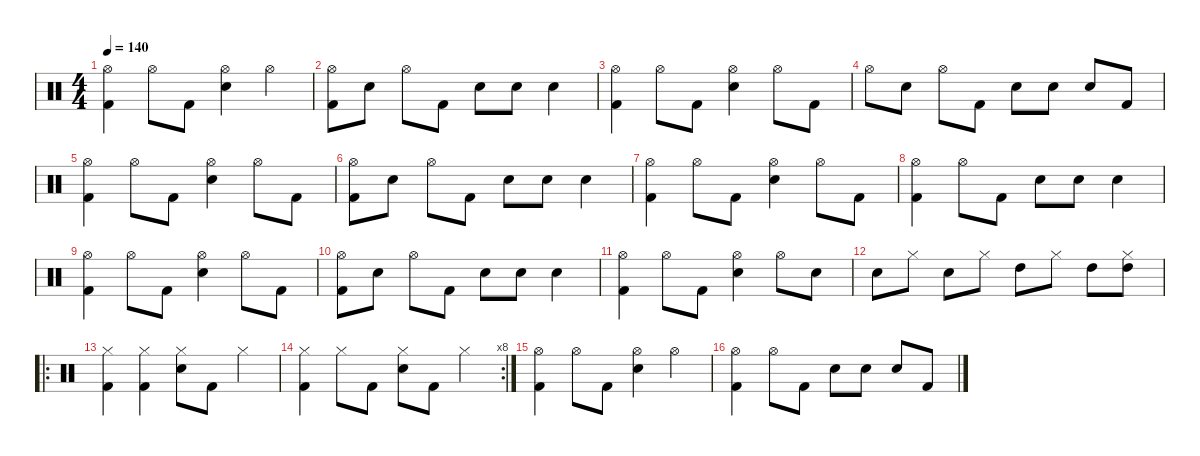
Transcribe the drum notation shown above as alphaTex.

\defaultSystemsLayout 4
\hideDynamics
\bracketExtendMode nobrackets
\singleTrackTrackNamePolicy hidden
\multiTrackTrackNamePolicy hidden
\firstSystemTrackNameMode fullname
\firstSystemTrackNameOrientation horizontal
\otherSystemsTrackNameOrientation horizontal
\track ("Bill Ward" "drm.") {instrument percussion}
\staff {score}
\articulation defaults
\ts (4 4)
\tempo 140
\clef neutral
\ks c
("Hi-Hat (open)" "Kick (hit) 2").4{dy f beam Down} "Hi-Hat (open)".8{beam Down} "Kick (hit) 2".8{beam Down} ("Hi-Hat (open)" "Snare (hit) 2").4{beam Down} "Hi-Hat (open)".4{beam Down} |
("Hi-Hat (open)" "Kick (hit) 2").8{beam Down} "Snare (hit) 2".8{beam Down} "Hi-Hat (open)".8{beam Down} "Kick (hit) 2".8{beam Down} "Snare (hit) 2".8{beam Down} "Snare (hit) 2".8{beam Down} "Snare (hit) 2".4{beam Down} |
("Hi-Hat (open)" "Kick (hit) 2").4{beam Down} "Hi-Hat (open)".8{beam Down} "Kick (hit) 2".8{beam Down} ("Hi-Hat (open)" "Snare (hit) 2").4{beam Down} "Hi-Hat (open)".8{beam Down} "Kick (hit) 2".8{beam Down} |
"Hi-Hat (open)".8{beam Down} "Snare (hit) 2".8{beam Down} "Hi-Hat (open)".8{beam Down} "Kick (hit) 2".8{beam Down} "Snare (hit) 2".8{beam Down} "Snare (hit) 2".8{beam Down} "Snare (hit) 2".8{beam Up} "Kick (hit) 2".8{beam Up} |
("Hi-Hat (open)" "Kick (hit) 2").4{beam Down} "Hi-Hat (open)".8{beam Down} "Kick (hit) 2".8{beam Down} ("Hi-Hat (open)" "Snare (hit) 2").4{beam Down} "Hi-Hat (open)".8{beam Down} "Kick (hit) 2".8{beam Down} |
("Hi-Hat (open)" "Kick (hit) 2").8{beam Down} "Snare (hit) 2".8{beam Down} "Hi-Hat (open)".8{beam Down} "Kick (hit) 2".8{beam Down} "Snare (hit) 2".8{beam Down} "Snare (hit) 2".8{beam Down} "Snare (hit) 2".4{beam Down} |
("Hi-Hat (open)" "Kick (hit) 2").4{beam Down} "Hi-Hat (open)".8{beam Down} "Kick (hit) 2".8{beam Down} ("Hi-Hat (open)" "Snare (hit) 2").4{beam Down} "Hi-Hat (open)".8{beam Down} "Kick (hit) 2".8{beam Down} |
("Hi-Hat (open)" "Kick (hit) 2").4{beam Down} "Hi-Hat (open)".8{beam Down} "Kick (hit) 2".8{beam Down} "Snare (hit) 2".8{beam Down} "Snare (hit) 2".8{beam Down} "Snare (hit) 2".4{beam Down} |
("Hi-Hat (open)" "Kick (hit) 2").4{beam Down} "Hi-Hat (open)".8{beam Down} "Kick (hit) 2".8{beam Down} ("Hi-Hat (open)" "Snare (hit) 2").4{beam Down} "Hi-Hat (open)".8{beam Down} "Kick (hit) 2".8{beam Down} |
("Hi-Hat (open)" "Kick (hit) 2").8{beam Down} "Snare (hit) 2".8{beam Down} "Hi-Hat (open)".8{beam Down} "Kick (hit) 2".8{beam Down} "Snare (hit) 2".8{beam Down} "Snare (hit) 2".8{beam Down} "Snare (hit) 2".4{beam Down} |
("Hi-Hat (open)" "Kick (hit) 2").4{beam Down} "Hi-Hat (open)".8{beam Down} "Kick (hit) 2".8{beam Down} ("Hi-Hat (open)" "Snare (hit) 2").4{beam Down} "Hi-Hat (open)".8{beam Down} "Snare (hit) 2".8{beam Down} |
"Snare (hit) 2".8{beam Down} "Hi-Hat (closed)".8{beam Down} "Snare (hit) 2".8{beam Down} "Hi-Hat (closed)".8{beam Down} "High Tom (hit)".8{beam Down} "Hi-Hat (closed)".8{beam Down} "High Tom (hit)".8{beam Down} ("Hi-Hat (closed)" "High Tom (hit)").8{beam Down} |
\ro
("Hi-Hat (closed)" "Kick (hit) 2").4{beam Down} ("Hi-Hat (closed)" "Kick (hit) 2").4{beam Down} ("Hi-Hat (closed)" "Snare (hit) 2").8{beam Down} "Kick (hit) 2".8{beam Down} "Hi-Hat (closed)".4{beam Down} |
\rc 8
("Hi-Hat (closed)" "Kick (hit) 2").4{beam Down} "Hi-Hat (closed)".8{beam Down} "Kick (hit) 2".8{beam Down} ("Hi-Hat (closed)" "Snare (hit) 2").8{beam Down} "Kick (hit) 2".8{beam Down} "Hi-Hat (closed)".4{beam Down} |
("Hi-Hat (open)" "Kick (hit) 2").4{beam Down} "Hi-Hat (open)".8{beam Down} "Kick (hit) 2".8{beam Down} ("Hi-Hat (open)" "Snare (hit) 2").4{beam Down} "Hi-Hat (open)".4{beam Down} |
("Hi-Hat (open)" "Kick (hit) 2").4{beam Down} "Hi-Hat (open)".8{beam Down} "Kick (hit) 2".8{beam Down} "Snare (hit) 2".8{beam Down} "Snare (hit) 2".8{beam Down} "Snare (hit) 2".8{beam Up} "Kick (hit) 2".8{beam Up}
